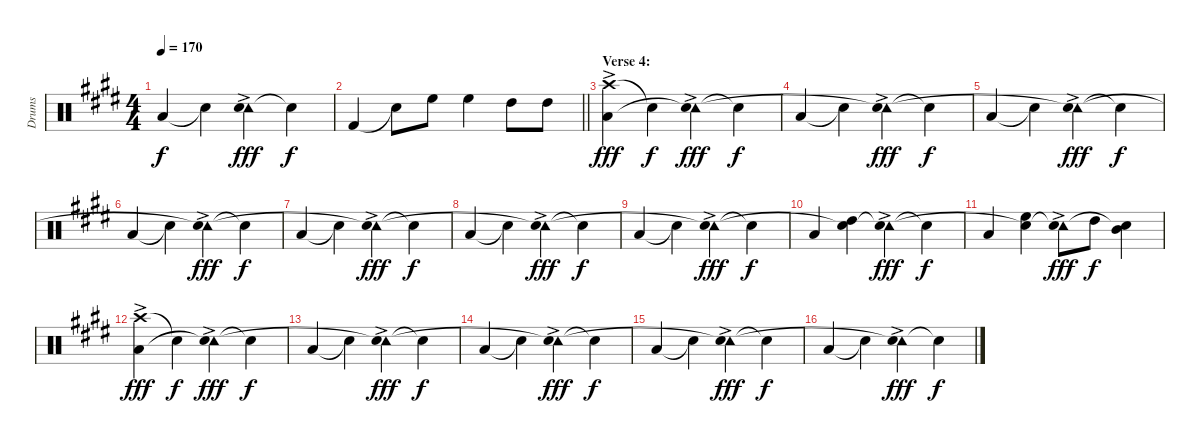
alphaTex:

\track ("Drums" "Drums") {instrument percussion}
\staff {score}
\articulation defaults
\ts (4 4)
\tempo 170
\clef neutral
\ks c#minor "Low Floor Tom (hit)".4{dy f} "Snare (hit)"{t}.4
("Tambourine (hit)"{ac} "Snare (hit)"{t}).4{dy fff} "Snare (hit)"{t}.4{dy f} |
\barLineRight lightlight "Kick (hit) 2".4 "Snare (hit)"{t}.8 "High Floor Tom (hit)".8 "High Floor Tom (hit)".4 "High Tom (hit)".8 "High Tom (hit)".8
|
\section ("" "Verse 4:")
("Crash high (hit)"{ac} "Low Floor Tom (hit)").4{dy fff} "Snare (hit)"{t}.4{dy f} ("Tambourine (hit)"{ac} "Snare (hit)"{t}).4{dy fff} "Snare (hit)"{t}.4{dy f} |
"Low Floor Tom (hit)".4 "Snare (hit)"{t}.4 ("Tambourine (hit)"{ac} "Snare (hit)"{t}).4{dy fff} "Snare (hit)"{t}.4{dy f} |
"Low Floor Tom (hit)".4 "Snare (hit)"{t}.4 ("Tambourine (hit)"{ac} "Snare (hit)"{t}).4{dy fff} "Snare (hit)"{t}.4{dy f} |
"Low Floor Tom (hit)".4 "Snare (hit)"{t}.4 ("Tambourine (hit)"{ac} "Snare (hit)"{t}).4{dy fff} "Snare (hit)"{t}.4{dy f} |
"Low Floor Tom (hit)".4 "Snare (hit)"{t}.4 ("Tambourine (hit)"{ac} "Snare (hit)"{t}).4{dy fff} "Snare (hit)"{t}.4{dy f} |
"Low Floor Tom (hit)".4 "Snare (hit)"{t}.4 ("Tambourine (hit)"{ac} "Snare (hit)"{t}).4{dy fff} "Snare (hit)"{t}.4{dy f} |
"Low Floor Tom (hit)".4 "Snare (hit)"{t}.4 ("Tambourine (hit)"{ac} "Snare (hit)"{t}).4{dy fff} "Snare (hit)"{t}.4{dy f} |
"Low Floor Tom (hit)".4 ("High Tom (hit)" "Snare (hit)"{t}).4 ("Tambourine (hit)"{ac} "Snare (hit)"{t}).4{dy fff} "Snare (hit)"{t}.4{dy f} |
"Low Floor Tom (hit)".4 ("High Floor Tom (hit)" "Snare (hit)"{t}).4 ("Tambourine (hit)"{ac} "Snare (hit)"{t}).8{dy fff} "High Tom (hit)".8{dy f} ("Mid Tom (hit)" "Snare (hit)"{t}).4 |
("Crash high (hit)"{ac} "Low Floor Tom (hit)").4{dy fff} "Snare (hit)"{t}.4{dy f} ("Tambourine (hit)"{ac} "Snare (hit)"{t}).4{dy fff} "Snare (hit)"{t}.4{dy f} |
"Low Floor Tom (hit)".4 "Snare (hit)"{t}.4 ("Tambourine (hit)"{ac} "Snare (hit)"{t}).4{dy fff} "Snare (hit)"{t}.4{dy f} |
"Low Floor Tom (hit)".4 "Snare (hit)"{t}.4 ("Tambourine (hit)"{ac} "Snare (hit)"{t}).4{dy fff} "Snare (hit)"{t}.4{dy f} |
"Low Floor Tom (hit)".4 "Snare (hit)"{t}.4 ("Tambourine (hit)"{ac} "Snare (hit)"{t}).4{dy fff} "Snare (hit)"{t}.4{dy f} |
"Low Floor Tom (hit)".4 "Snare (hit)"{t}.4 ("Tambourine (hit)"{ac} "Snare (hit)"{t}).4{dy fff} "Snare (hit)"{t}.4{dy f}
